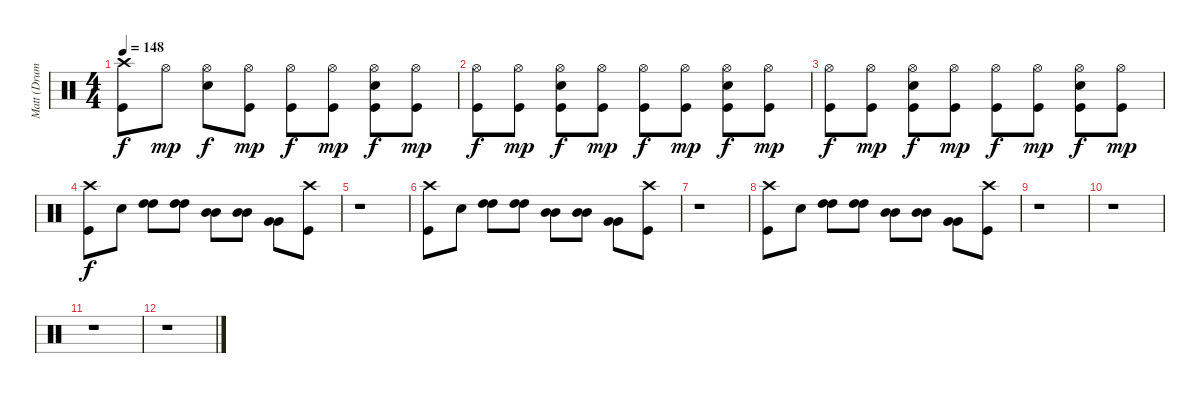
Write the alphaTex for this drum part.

\track ("Matt (Drums)" "Matt (Drum") {instrument percussion}
\staff {score}
\articulation defaults
\ts (4 4)
\tempo 148
\clef neutral
\ks c
("Crash high (hit)" "Kick (hit)").8{dy f} "Hi-Hat (open)".8{dy mp} ("Hi-Hat (open)" "Electric Snare (hit)").8{dy f} ("Hi-Hat (open)" "Kick (hit)").8{dy mp} ("Hi-Hat (open)" "Kick (hit)").8{dy f} ("Hi-Hat (open)" "Kick (hit)").8{dy mp} ("Hi-Hat (open)" "Electric Snare (hit)" "Kick (hit)").8{dy f} ("Hi-Hat (open)" "Kick (hit)").8{dy mp} |
("Hi-Hat (open)" "Kick (hit)").8{dy f} ("Hi-Hat (open)" "Kick (hit)").8{dy mp} ("Hi-Hat (open)" "Electric Snare (hit)" "Kick (hit)").8{dy f} ("Hi-Hat (open)" "Kick (hit)").8{dy mp} ("Hi-Hat (open)" "Kick (hit)").8{dy f} ("Hi-Hat (open)" "Kick (hit)").8{dy mp} ("Hi-Hat (open)" "Electric Snare (hit)" "Kick (hit)").8{dy f} ("Hi-Hat (open)" "Kick (hit)").8{dy mp} |
("Hi-Hat (open)" "Kick (hit)").8{dy f} ("Hi-Hat (open)" "Kick (hit)").8{dy mp} ("Hi-Hat (open)" "Electric Snare (hit)" "Kick (hit)").8{dy f} ("Hi-Hat (open)" "Kick (hit)").8{dy mp} ("Hi-Hat (open)" "Kick (hit)").8{dy f} ("Hi-Hat (open)" "Kick (hit)").8{dy mp} ("Hi-Hat (open)" "Electric Snare (hit)" "Kick (hit)").8{dy f} ("Hi-Hat (open)" "Kick (hit)").8{dy mp} |
("Crash high (hit)" "Kick (hit)").8{dy f} "Electric Snare (hit)".8 ("High Tom (hit)" "High Tom (hit)").8{bu 240} ("High Tom (hit)" "High Tom (hit)").8{bu 240} ("Mid Tom (hit)" "Mid Tom (hit)").8{bu 240} ("Mid Tom (hit)" "Mid Tom (hit)").8{bu 240} ("Very Low Tom (hit)" "Very Low Tom (hit)").8{bu 240} ("Crash high (hit)" "Kick (hit)").8 |
r.1 |
("Crash high (hit)" "Kick (hit)").8 "Electric Snare (hit)".8 ("High Tom (hit)" "High Tom (hit)").8{bu 240} ("High Tom (hit)" "High Tom (hit)").8{bu 240} ("Mid Tom (hit)" "Mid Tom (hit)").8{bu 240} ("Mid Tom (hit)" "Mid Tom (hit)").8{bu 240} ("Very Low Tom (hit)" "Very Low Tom (hit)").8{bu 240} ("Crash high (hit)" "Kick (hit)").8 |
r.1 |
("Crash high (hit)" "Kick (hit)").8 "Electric Snare (hit)".8 ("High Tom (hit)" "High Tom (hit)").8{bu 240} ("High Tom (hit)" "High Tom (hit)").8{bu 240} ("Mid Tom (hit)" "Mid Tom (hit)").8{bu 240} ("Mid Tom (hit)" "Mid Tom (hit)").8{bu 240} ("Very Low Tom (hit)" "Very Low Tom (hit)").8{bu 240} ("Crash high (hit)" "Kick (hit)").8 |
r.1 |
r.1 |
r.1 |
r.1
